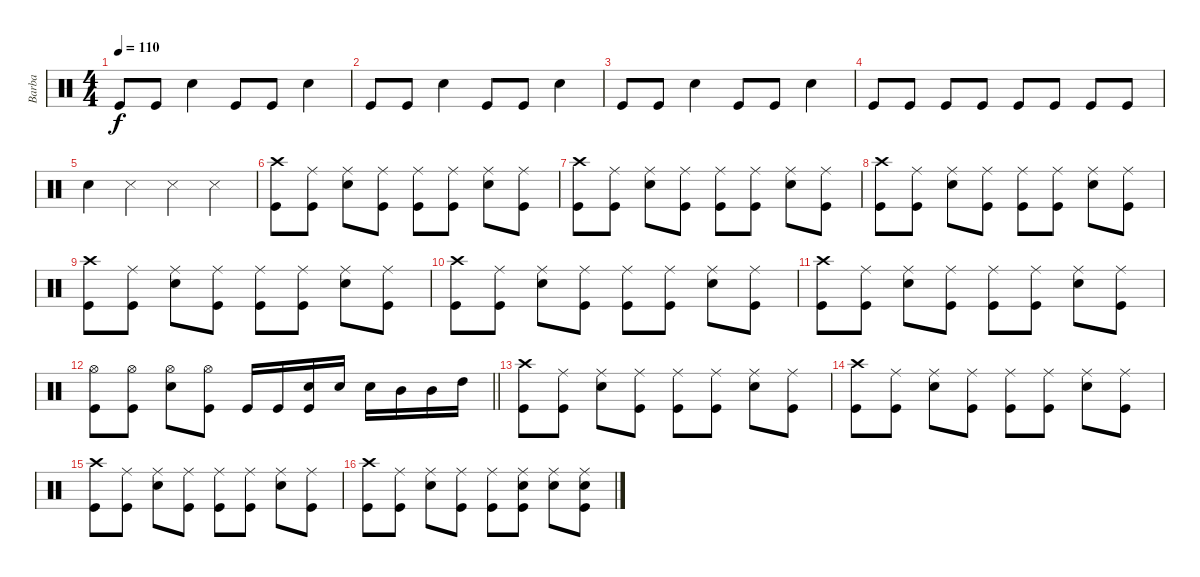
\track ("Barba" "Barba") {instrument percussion}
\staff {score}
\articulation defaults
\ts (4 4)
\tempo 110
\clef neutral
\ks c "Kick (hit)".8{dy f} "Kick (hit)".8 "Electric Snare (hit)".4 "Kick (hit)".8 "Kick (hit)".8 "Electric Snare (hit)".4
|
"Kick (hit)".8 "Kick (hit)".8 "Electric Snare (hit)".4 "Kick (hit)".8 "Kick (hit)".8 "Electric Snare (hit)".4 |
"Kick (hit)".8 "Kick (hit)".8 "Electric Snare (hit)".4 "Kick (hit)".8 "Kick (hit)".8 "Electric Snare (hit)".4 |
"Kick (hit)".8 "Kick (hit)".8 "Kick (hit)".8 "Kick (hit)".8 "Kick (hit)".8 "Kick (hit)".8 "Kick (hit)".8 "Kick (hit)".8 |
"Electric Snare (hit)".4 "Metronome (hit)".4 "Metronome (hit)".4 "Metronome (hit)".4 |
("Crash high (hit)" "Kick (hit)").8 ("Ride (middle)" "Kick (hit)").8 ("Ride (middle)" "Electric Snare (hit)").8 ("Ride (middle)" "Kick (hit)").8 ("Ride (middle)" "Kick (hit)").8 ("Ride (middle)" "Kick (hit)").8 ("Ride (middle)" "Electric Snare (hit)").8 ("Ride (middle)" "Kick (hit)").8 |
("Crash high (hit)" "Kick (hit)").8 ("Ride (middle)" "Kick (hit)").8 ("Ride (middle)" "Electric Snare (hit)").8 ("Ride (middle)" "Kick (hit)").8 ("Ride (middle)" "Kick (hit)").8 ("Ride (middle)" "Kick (hit)").8 ("Ride (middle)" "Electric Snare (hit)").8 ("Ride (middle)" "Kick (hit)").8 |
("Crash high (hit)" "Kick (hit)").8 ("Ride (middle)" "Kick (hit)").8 ("Ride (middle)" "Electric Snare (hit)").8 ("Ride (middle)" "Kick (hit)").8 ("Ride (middle)" "Kick (hit)").8 ("Ride (middle)" "Kick (hit)").8 ("Ride (middle)" "Electric Snare (hit)").8 ("Ride (middle)" "Kick (hit)").8 |
("Crash high (hit)" "Kick (hit)").8 ("Ride (middle)" "Kick (hit)").8 ("Ride (middle)" "Electric Snare (hit)").8 ("Ride (middle)" "Kick (hit)").8 ("Ride (middle)" "Kick (hit)").8 ("Ride (middle)" "Kick (hit)").8 ("Ride (middle)" "Electric Snare (hit)").8 ("Ride (middle)" "Kick (hit)").8 |
("Crash high (hit)" "Kick (hit)").8 ("Ride (middle)" "Kick (hit)").8 ("Ride (middle)" "Electric Snare (hit)").8 ("Ride (middle)" "Kick (hit)").8 ("Ride (middle)" "Kick (hit)").8 ("Ride (middle)" "Kick (hit)").8 ("Ride (middle)" "Electric Snare (hit)").8 ("Ride (middle)" "Kick (hit)").8 |
("Crash high (hit)" "Kick (hit)").8 ("Ride (middle)" "Kick (hit)").8 ("Ride (middle)" "Electric Snare (hit)").8 ("Ride (middle)" "Kick (hit)").8 ("Ride (middle)" "Kick (hit)").8 ("Ride (middle)" "Kick (hit)").8 ("Ride (middle)" "Electric Snare (hit)").8 ("Ride (middle)" "Kick (hit)").8 |
\barLineRight lightlight
("Hi-Hat (open)" "Kick (hit)").8 ("Hi-Hat (open)" "Kick (hit)").8 ("Hi-Hat (open)" "Electric Snare (hit)").8 ("Hi-Hat (open)" "Kick (hit)").8 "Kick (hit)".16 "Kick (hit)".16 ("Electric Snare (hit)" "Kick (hit)").16 "Electric Snare (hit)".16 "Electric Snare (hit)".16 "Mid Tom (hit)".16 "Mid Tom (hit)".16 "High Tom (hit)".16 |
("Crash high (hit)" "Kick (hit)").8 ("Ride (middle)" "Kick (hit)").8 ("Ride (middle)" "Electric Snare (hit)").8 ("Ride (middle)" "Kick (hit)").8 ("Ride (middle)" "Kick (hit)").8 ("Ride (middle)" "Kick (hit)").8 ("Ride (middle)" "Electric Snare (hit)").8 ("Ride (middle)" "Kick (hit)").8 |
("Crash high (hit)" "Kick (hit)").8 ("Ride (middle)" "Kick (hit)").8 ("Ride (middle)" "Electric Snare (hit)").8 ("Ride (middle)" "Kick (hit)").8 ("Ride (middle)" "Kick (hit)").8 ("Ride (middle)" "Kick (hit)").8 ("Ride (middle)" "Electric Snare (hit)").8 ("Ride (middle)" "Kick (hit)").8 |
("Crash high (hit)" "Kick (hit)").8 ("Ride (middle)" "Kick (hit)").8 ("Ride (middle)" "Electric Snare (hit)").8 ("Ride (middle)" "Kick (hit)").8 ("Ride (middle)" "Kick (hit)").8 ("Ride (middle)" "Kick (hit)").8 ("Ride (middle)" "Electric Snare (hit)").8 ("Ride (middle)" "Kick (hit)").8 |
("Crash high (hit)" "Kick (hit)").8 ("Ride (middle)" "Kick (hit)").8 ("Ride (middle)" "Electric Snare (hit)").8 ("Ride (middle)" "Kick (hit)").8 ("Ride (middle)" "Kick (hit)").8 ("Ride (middle)" "Electric Snare (hit)" "Kick (hit)").8 ("Ride (middle)" "Electric Snare (hit)").8 ("Ride (middle)" "Electric Snare (hit)" "Kick (hit)").8
